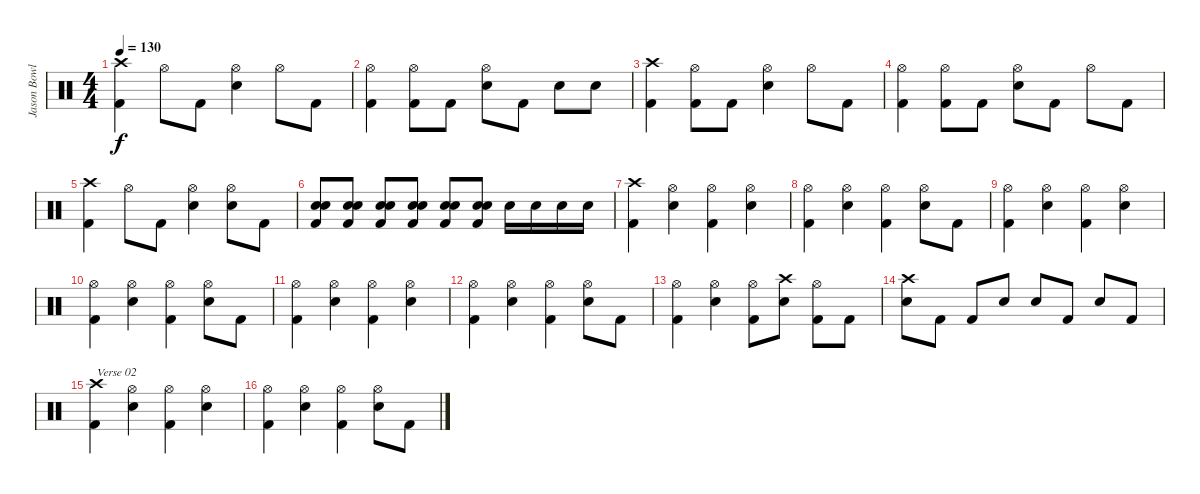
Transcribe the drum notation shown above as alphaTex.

\track ("Jason Bowld" "Jason Bowl") {instrument percussion}
\staff {score}
\articulation defaults
\ts (4 4)
\tempo 130
\clef neutral
\ks c
("Crash high (hit)" "Kick (hit) 2").4{dy f} "Hi-Hat (open)".8 "Kick (hit) 2".8 ("Hi-Hat (open)" "Snare (hit) 2").4 "Hi-Hat (open)".8 "Kick (hit) 2".8 |
("Hi-Hat (open)" "Kick (hit) 2").4 ("Hi-Hat (open)" "Kick (hit) 2").8 "Kick (hit) 2".8 ("Hi-Hat (open)" "Snare (hit) 2").8 "Kick (hit) 2".8 "Snare (hit) 2".8 "Snare (hit) 2".8 |
("Crash high (hit)" "Kick (hit) 2").4 ("Hi-Hat (open)" "Kick (hit) 2").8 "Kick (hit) 2".8 ("Hi-Hat (open)" "Snare (hit) 2").4 "Hi-Hat (open)".8 "Kick (hit) 2".8 |
("Hi-Hat (open)" "Kick (hit) 2").4 ("Hi-Hat (open)" "Kick (hit) 2").8 "Kick (hit) 2".8 ("Hi-Hat (open)" "Snare (hit) 2").8 "Kick (hit) 2".8 "Hi-Hat (open)".8 "Kick (hit) 2".8 |
("Crash high (hit)" "Kick (hit) 2").4 "Hi-Hat (open)".8 "Kick (hit) 2".8 ("Hi-Hat (open)" "Snare (hit) 2").4 ("Hi-Hat (open)" "Snare (hit) 2").8 "Kick (hit) 2".8 |
("Snare (hit) 2" "Snare (hit) 2" "Kick (hit) 2").8 ("Snare (hit) 2" "Snare (hit) 2" "Kick (hit) 2").8 ("Snare (hit) 2" "Snare (hit) 2" "Kick (hit) 2").8 ("Snare (hit) 2" "Snare (hit) 2" "Kick (hit) 2").8 ("Snare (hit) 2" "Snare (hit) 2" "Kick (hit) 2").8 ("Snare (hit) 2" "Snare (hit) 2" "Kick (hit) 2").8 "Snare (hit) 2".16 "Snare (hit) 2".16 "Snare (hit) 2".16 "Snare (hit) 2".16 |
("Crash high (hit)" "Kick (hit) 2").4 ("Hi-Hat (open)" "Snare (hit) 2").4 ("Hi-Hat (open)" "Kick (hit) 2").4 ("Hi-Hat (open)" "Snare (hit) 2").4 |
("Hi-Hat (open)" "Kick (hit) 2").4 ("Hi-Hat (open)" "Snare (hit) 2").4 ("Hi-Hat (open)" "Kick (hit) 2").4 ("Hi-Hat (open)" "Snare (hit) 2").8 "Kick (hit) 2".8 |
("Hi-Hat (open)" "Kick (hit) 2").4 ("Hi-Hat (open)" "Snare (hit) 2").4 ("Hi-Hat (open)" "Kick (hit) 2").4 ("Hi-Hat (open)" "Snare (hit) 2").4 |
("Hi-Hat (open)" "Kick (hit) 2").4 ("Hi-Hat (open)" "Snare (hit) 2").4 ("Hi-Hat (open)" "Kick (hit) 2").4 ("Hi-Hat (open)" "Snare (hit) 2").8 "Kick (hit) 2".8 |
("Hi-Hat (open)" "Kick (hit) 2").4 ("Hi-Hat (open)" "Snare (hit) 2").4 ("Hi-Hat (open)" "Kick (hit) 2").4 ("Hi-Hat (open)" "Snare (hit) 2").4 |
("Hi-Hat (open)" "Kick (hit) 2").4 ("Hi-Hat (open)" "Snare (hit) 2").4 ("Hi-Hat (open)" "Kick (hit) 2").4 ("Hi-Hat (open)" "Snare (hit) 2").8 "Kick (hit) 2".8 |
("Hi-Hat (open)" "Kick (hit) 2").4 ("Hi-Hat (open)" "Snare (hit) 2").4 ("Hi-Hat (open)" "Kick (hit) 2").8 ("Crash high (hit)" "Snare (hit) 2").8 ("Hi-Hat (open)" "Kick (hit) 2").8 "Kick (hit) 2".8 |
("Crash high (hit)" "Snare (hit) 2").8 "Kick (hit) 2".8 "Kick (hit) 2".8 "Snare (hit) 2".8 "Snare (hit) 2".8 "Kick (hit) 2".8 "Snare (hit) 2".8 "Kick (hit) 2".8 |
("Crash high (hit)" "Kick (hit) 2").4{txt "Verse 02"} ("Hi-Hat (open)" "Snare (hit) 2").4 ("Hi-Hat (open)" "Kick (hit) 2").4 ("Hi-Hat (open)" "Snare (hit) 2").4 |
("Hi-Hat (open)" "Kick (hit) 2").4 ("Hi-Hat (open)" "Snare (hit) 2").4 ("Hi-Hat (open)" "Kick (hit) 2").4 ("Hi-Hat (open)" "Snare (hit) 2").8 "Kick (hit) 2".8
